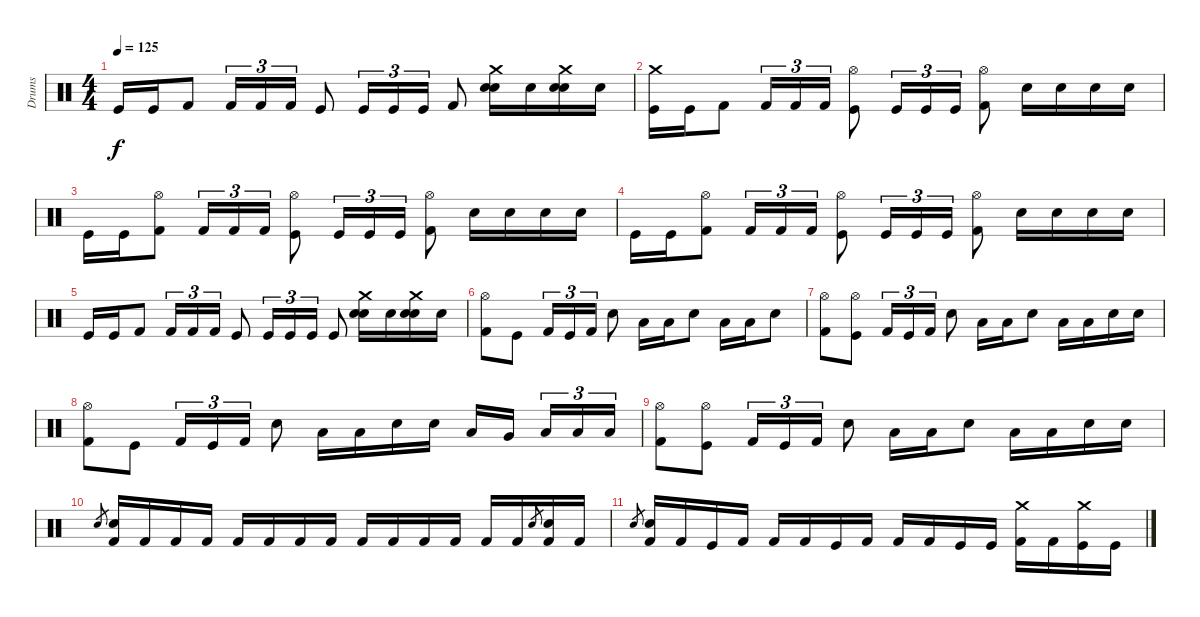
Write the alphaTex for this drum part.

\track ("Drums" "Drums") {instrument percussion}
\staff {score}
\articulation defaults
\ts (4 4)
\tempo 125
\clef neutral
\ks c "Kick (hit)".16{dy f} "Kick (hit)".16 "Kick (hit) 2".8 "Kick (hit) 2".16{tu (3 2)} "Kick (hit) 2".16{tu (3 2)} "Kick (hit) 2".16{tu (3 2)} "Kick (hit)".8 "Kick (hit)".16{tu (3 2)} "Kick (hit)".16{tu (3 2)} "Kick (hit)".16{tu (3 2)} "Kick (hit) 2".8
("Crash medium (hit)" "Electric Snare (hit)" "Snare (hit) 2").16 "Snare (hit) 2".16 ("Crash medium (hit)" "Electric Snare (hit)" "Snare (hit) 2").16 "Snare (hit) 2".16 |
("Crash medium (hit)" "Kick (hit)").16 "Kick (hit)".16 "Kick (hit) 2".8 "Kick (hit) 2".16{tu (3 2)} "Kick (hit) 2".16{tu (3 2)} "Kick (hit) 2".16{tu (3 2)} ("Hi-Hat (open)" "Kick (hit)").8 "Kick (hit)".16{tu (3 2)} "Kick (hit)".16{tu (3 2)} "Kick (hit)".16{tu (3 2)} ("Hi-Hat (open)" "Kick (hit) 2").8 "Snare (hit) 2".16 "Snare (hit) 2".16 "Snare (hit) 2".16 "Snare (hit) 2".16 |
"Kick (hit)".16 "Kick (hit)".16 ("Hi-Hat (open)" "Kick (hit) 2").8 "Kick (hit) 2".16{tu (3 2)} "Kick (hit) 2".16{tu (3 2)} "Kick (hit) 2".16{tu (3 2)} ("Hi-Hat (open)" "Kick (hit)").8 "Kick (hit)".16{tu (3 2)} "Kick (hit)".16{tu (3 2)} "Kick (hit)".16{tu (3 2)} ("Hi-Hat (open)" "Kick (hit) 2").8 "Snare (hit) 2".16 "Snare (hit) 2".16 "Snare (hit) 2".16 "Snare (hit) 2".16 |
"Kick (hit)".16 "Kick (hit)".16 ("Hi-Hat (open)" "Kick (hit) 2").8 "Kick (hit) 2".16{tu (3 2)} "Kick (hit) 2".16{tu (3 2)} "Kick (hit) 2".16{tu (3 2)} ("Hi-Hat (open)" "Kick (hit)").8 "Kick (hit)".16{tu (3 2)} "Kick (hit)".16{tu (3 2)} "Kick (hit)".16{tu (3 2)} ("Hi-Hat (open)" "Kick (hit) 2").8 "Snare (hit) 2".16 "Snare (hit) 2".16 "Snare (hit) 2".16 "Snare (hit) 2".16 |
"Kick (hit)".16 "Kick (hit)".16 "Kick (hit) 2".8 "Kick (hit) 2".16{tu (3 2)} "Kick (hit) 2".16{tu (3 2)} "Kick (hit) 2".16{tu (3 2)} "Kick (hit)".8 "Kick (hit)".16{tu (3 2)} "Kick (hit)".16{tu (3 2)} "Kick (hit)".16{tu (3 2)} "Kick (hit)".8 ("Crash medium (hit)" "Electric Snare (hit)" "Snare (hit) 2").16 "Snare (hit) 2".16 ("Crash medium (hit)" "Electric Snare (hit)" "Snare (hit) 2").16 "Snare (hit) 2".16 |
("Hi-Hat (open)" "Kick (hit) 2").8 "Kick (hit)".8 "Kick (hit) 2".16{tu (3 2)} "Kick (hit)".16{tu (3 2)} "Kick (hit) 2".16{tu (3 2)} "Electric Snare (hit)".8 "Low Floor Tom (hit)".16 "Low Floor Tom (hit)".16 "Snare (hit) 2".8 "Low Floor Tom (hit)".16 "Low Floor Tom (hit)".16 "Snare (hit) 2".8 |
("Hi-Hat (open)" "Kick (hit) 2").8 ("Hi-Hat (open)" "Kick (hit)").8 "Kick (hit) 2".16{tu (3 2)} "Kick (hit)".16{tu (3 2)} "Kick (hit) 2".16{tu (3 2)} "Electric Snare (hit)".8 "Low Floor Tom (hit)".16 "Low Floor Tom (hit)".16 "Snare (hit) 2".8 "Low Floor Tom (hit)".16 "Low Floor Tom (hit)".16 "Snare (hit) 2".16 "Snare (hit) 2".16 |
("Hi-Hat (open)" "Kick (hit) 2").8 "Kick (hit)".8 "Kick (hit) 2".16{tu (3 2)} "Kick (hit)".16{tu (3 2)} "Kick (hit) 2".16{tu (3 2)} "Electric Snare (hit)".8 "Low Floor Tom (hit)".16 "Low Floor Tom (hit)".16 "Snare (hit) 2".16 "Snare (hit) 2".16 "Low Tom (hit)".16 "Very Low Tom (hit)".16 "Low Floor Tom (hit)".16{tu (3 2)} "Low Floor Tom (hit)".16{tu (3 2)} "Low Floor Tom (hit)".16{tu (3 2)} |
("Hi-Hat (open)" "Kick (hit) 2").8 ("Hi-Hat (open)" "Kick (hit)").8 "Kick (hit) 2".16{tu (3 2)} "Kick (hit)".16{tu (3 2)} "Kick (hit) 2".16{tu (3 2)} "Electric Snare (hit)".8 "Low Floor Tom (hit)".16 "Low Floor Tom (hit)".16 "Snare (hit) 2".8 "Low Floor Tom (hit)".16 "Low Floor Tom (hit)".16 "Snare (hit) 2".16 "Snare (hit) 2".16 |
"Electric Snare (hit)".8{gr} ("Snare (hit) 2" "Kick (hit) 2").16 "Kick (hit) 2".16 "Kick (hit) 2".16 "Kick (hit) 2".16 "Kick (hit) 2".16 "Kick (hit) 2".16 "Kick (hit) 2".16 "Kick (hit) 2".16 "Kick (hit) 2".16 "Kick (hit) 2".16 "Kick (hit) 2".16 "Kick (hit) 2".16 "Kick (hit) 2".16 "Kick (hit) 2".16 "Electric Snare (hit)".8{gr} ("Snare (hit) 2" "Kick (hit) 2").16 "Kick (hit) 2".16 |
"Electric Snare (hit)".8{gr} ("Snare (hit) 2" "Kick (hit) 2").16 "Kick (hit) 2".16 "Kick (hit)".16 "Kick (hit) 2".16 "Kick (hit) 2".16 "Kick (hit) 2".16 "Kick (hit)".16 "Kick (hit) 2".16 "Kick (hit) 2".16 "Kick (hit) 2".16 "Kick (hit)".16 "Kick (hit)".16 ("Crash medium (hit)" "Kick (hit) 2").16 "Kick (hit) 2".16 ("Crash medium (hit)" "Kick (hit)").16 "Kick (hit)".16
